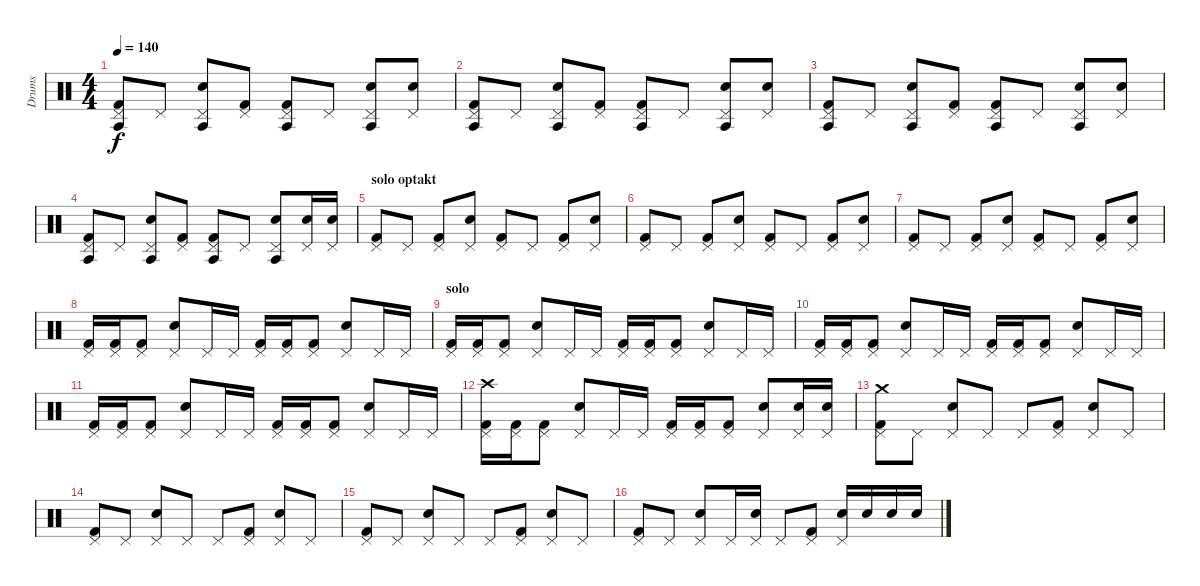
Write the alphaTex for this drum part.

\track ("Drums" "Drums") {instrument percussion}
\staff {score}
\articulation defaults
\ts (4 4)
\tempo 140
\clef neutral
\ks c
("Agogo tow (hit)" "Pedal Hi-Hat (hit)" "Kick (hit) 2").8{dy f} "Pedal Hi-Hat (hit)".8 ("Agogo tow (hit)" "Pedal Hi-Hat (hit)" "Snare (hit) 2").8 ("Pedal Hi-Hat (hit)" "Kick (hit) 2").8 ("Agogo tow (hit)" "Pedal Hi-Hat (hit)" "Kick (hit) 2").8 "Pedal Hi-Hat (hit)".8 ("Agogo tow (hit)" "Pedal Hi-Hat (hit)" "Snare (hit) 2").8 ("Pedal Hi-Hat (hit)" "Snare (hit) 2").8 |
("Agogo tow (hit)" "Pedal Hi-Hat (hit)" "Kick (hit) 2").8 "Pedal Hi-Hat (hit)".8 ("Agogo tow (hit)" "Pedal Hi-Hat (hit)" "Snare (hit) 2").8 ("Pedal Hi-Hat (hit)" "Kick (hit) 2").8 ("Agogo tow (hit)" "Pedal Hi-Hat (hit)" "Kick (hit) 2").8 "Pedal Hi-Hat (hit)".8 ("Agogo tow (hit)" "Pedal Hi-Hat (hit)" "Snare (hit) 2").8 ("Pedal Hi-Hat (hit)" "Snare (hit) 2").8 |
("Agogo tow (hit)" "Pedal Hi-Hat (hit)" "Kick (hit) 2").8 "Pedal Hi-Hat (hit)".8 ("Agogo tow (hit)" "Pedal Hi-Hat (hit)" "Snare (hit) 2").8 ("Pedal Hi-Hat (hit)" "Kick (hit) 2").8 ("Agogo tow (hit)" "Pedal Hi-Hat (hit)" "Kick (hit) 2").8 "Pedal Hi-Hat (hit)".8 ("Agogo tow (hit)" "Pedal Hi-Hat (hit)" "Snare (hit) 2").8 ("Pedal Hi-Hat (hit)" "Snare (hit) 2").8 |
("Agogo tow (hit)" "Pedal Hi-Hat (hit)" "Kick (hit) 2").8 "Pedal Hi-Hat (hit)".8 ("Agogo tow (hit)" "Pedal Hi-Hat (hit)" "Snare (hit) 2").8 ("Pedal Hi-Hat (hit)" "Kick (hit) 2").8 ("Agogo tow (hit)" "Pedal Hi-Hat (hit)" "Kick (hit) 2").8 "Pedal Hi-Hat (hit)".8 ("Agogo tow (hit)" "Pedal Hi-Hat (hit)" "Snare (hit) 2").8 ("Pedal Hi-Hat (hit)" "Snare (hit) 2").16 ("Pedal Hi-Hat (hit)" "Snare (hit) 2").16 |
\section ("" "solo optakt")
("Pedal Hi-Hat (hit)" "Kick (hit) 2").8 "Pedal Hi-Hat (hit)".8 ("Pedal Hi-Hat (hit)" "Kick (hit) 2").8 ("Pedal Hi-Hat (hit)" "Snare (hit) 2").8 ("Pedal Hi-Hat (hit)" "Kick (hit) 2").8 "Pedal Hi-Hat (hit)".8 ("Pedal Hi-Hat (hit)" "Kick (hit) 2").8 ("Pedal Hi-Hat (hit)" "Snare (hit) 2").8 |
("Pedal Hi-Hat (hit)" "Kick (hit) 2").8 "Pedal Hi-Hat (hit)".8 ("Pedal Hi-Hat (hit)" "Kick (hit) 2").8 ("Pedal Hi-Hat (hit)" "Snare (hit) 2").8 ("Pedal Hi-Hat (hit)" "Kick (hit) 2").8 "Pedal Hi-Hat (hit)".8 ("Pedal Hi-Hat (hit)" "Kick (hit) 2").8 ("Pedal Hi-Hat (hit)" "Snare (hit) 2").8 |
("Pedal Hi-Hat (hit)" "Kick (hit) 2").8 "Pedal Hi-Hat (hit)".8 ("Pedal Hi-Hat (hit)" "Kick (hit) 2").8 ("Pedal Hi-Hat (hit)" "Snare (hit) 2").8 ("Pedal Hi-Hat (hit)" "Kick (hit) 2").8 "Pedal Hi-Hat (hit)".8 ("Pedal Hi-Hat (hit)" "Kick (hit) 2").8 ("Pedal Hi-Hat (hit)" "Snare (hit) 2").8 |
("Pedal Hi-Hat (hit)" "Kick (hit) 2").16 ("Pedal Hi-Hat (hit)" "Kick (hit) 2").16 ("Pedal Hi-Hat (hit)" "Kick (hit) 2").8 ("Pedal Hi-Hat (hit)" "Snare (hit) 2").8 "Pedal Hi-Hat (hit)".16 "Pedal Hi-Hat (hit)".16 ("Pedal Hi-Hat (hit)" "Kick (hit) 2").16 ("Pedal Hi-Hat (hit)" "Kick (hit) 2").16 ("Pedal Hi-Hat (hit)" "Kick (hit) 2").8 ("Pedal Hi-Hat (hit)" "Snare (hit) 2").8 "Pedal Hi-Hat (hit)".16 "Pedal Hi-Hat (hit)".16 |
\section ("" "solo")
("Pedal Hi-Hat (hit)" "Kick (hit) 2").16 ("Pedal Hi-Hat (hit)" "Kick (hit) 2").16 ("Pedal Hi-Hat (hit)" "Kick (hit) 2").8 ("Pedal Hi-Hat (hit)" "Snare (hit) 2").8 "Pedal Hi-Hat (hit)".16 "Pedal Hi-Hat (hit)".16 ("Pedal Hi-Hat (hit)" "Kick (hit) 2").16 ("Pedal Hi-Hat (hit)" "Kick (hit) 2").16 ("Pedal Hi-Hat (hit)" "Kick (hit) 2").8 ("Pedal Hi-Hat (hit)" "Snare (hit) 2").8 "Pedal Hi-Hat (hit)".16 "Pedal Hi-Hat (hit)".16 |
("Pedal Hi-Hat (hit)" "Kick (hit) 2").16 ("Pedal Hi-Hat (hit)" "Kick (hit) 2").16 ("Pedal Hi-Hat (hit)" "Kick (hit) 2").8 ("Pedal Hi-Hat (hit)" "Snare (hit) 2").8 "Pedal Hi-Hat (hit)".16 "Pedal Hi-Hat (hit)".16 ("Pedal Hi-Hat (hit)" "Kick (hit) 2").16 ("Pedal Hi-Hat (hit)" "Kick (hit) 2").16 ("Pedal Hi-Hat (hit)" "Kick (hit) 2").8 ("Pedal Hi-Hat (hit)" "Snare (hit) 2").8 "Pedal Hi-Hat (hit)".16 "Pedal Hi-Hat (hit)".16 |
("Pedal Hi-Hat (hit)" "Kick (hit) 2").16 ("Pedal Hi-Hat (hit)" "Kick (hit) 2").16 ("Pedal Hi-Hat (hit)" "Kick (hit) 2").8 ("Pedal Hi-Hat (hit)" "Snare (hit) 2").8 "Pedal Hi-Hat (hit)".16 "Pedal Hi-Hat (hit)".16 ("Pedal Hi-Hat (hit)" "Kick (hit) 2").16 ("Pedal Hi-Hat (hit)" "Kick (hit) 2").16 ("Pedal Hi-Hat (hit)" "Kick (hit) 2").8 ("Pedal Hi-Hat (hit)" "Snare (hit) 2").8 "Pedal Hi-Hat (hit)".16 "Pedal Hi-Hat (hit)".16 |
("Crash high (hit)" "Pedal Hi-Hat (hit)" "Kick (hit) 2").16 ("Pedal Hi-Hat (hit)" "Kick (hit) 2").16 ("Pedal Hi-Hat (hit)" "Kick (hit) 2").8 ("Pedal Hi-Hat (hit)" "Snare (hit) 2").8 "Pedal Hi-Hat (hit)".16 "Pedal Hi-Hat (hit)".16 ("Pedal Hi-Hat (hit)" "Kick (hit) 2").16 ("Pedal Hi-Hat (hit)" "Kick (hit) 2").16 ("Pedal Hi-Hat (hit)" "Kick (hit) 2").8 ("Pedal Hi-Hat (hit)" "Snare (hit) 2").8 ("Pedal Hi-Hat (hit)" "Snare (hit) 2").16 ("Pedal Hi-Hat (hit)" "Snare (hit) 2").16 |
("Crash medium (hit)" "Pedal Hi-Hat (hit)" "Kick (hit) 2").8 "Pedal Hi-Hat (hit)".8 ("Pedal Hi-Hat (hit)" "Snare (hit) 2").8 "Pedal Hi-Hat (hit)".8 "Pedal Hi-Hat (hit)".8 ("Pedal Hi-Hat (hit)" "Kick (hit) 2").8 ("Pedal Hi-Hat (hit)" "Snare (hit) 2").8 "Pedal Hi-Hat (hit)".8 |
("Pedal Hi-Hat (hit)" "Kick (hit) 2").8 "Pedal Hi-Hat (hit)".8 ("Pedal Hi-Hat (hit)" "Snare (hit) 2").8 "Pedal Hi-Hat (hit)".8 "Pedal Hi-Hat (hit)".8 ("Pedal Hi-Hat (hit)" "Kick (hit) 2").8 ("Pedal Hi-Hat (hit)" "Snare (hit) 2").8 "Pedal Hi-Hat (hit)".8 |
("Pedal Hi-Hat (hit)" "Kick (hit) 2").8 "Pedal Hi-Hat (hit)".8 ("Pedal Hi-Hat (hit)" "Snare (hit) 2").8 "Pedal Hi-Hat (hit)".8 "Pedal Hi-Hat (hit)".8 ("Pedal Hi-Hat (hit)" "Kick (hit) 2").8 ("Pedal Hi-Hat (hit)" "Snare (hit) 2").8 "Pedal Hi-Hat (hit)".8 |
("Pedal Hi-Hat (hit)" "Kick (hit) 2").8 "Pedal Hi-Hat (hit)".8 ("Pedal Hi-Hat (hit)" "Snare (hit) 2").8 "Pedal Hi-Hat (hit)".16 ("Pedal Hi-Hat (hit)" "Snare (hit) 2").16 "Pedal Hi-Hat (hit)".8 ("Pedal Hi-Hat (hit)" "Kick (hit) 2").8 ("Pedal Hi-Hat (hit)" "Snare (hit) 2").16 "Snare (hit) 2".16 "Snare (hit) 2".16 "Snare (hit) 2".16
